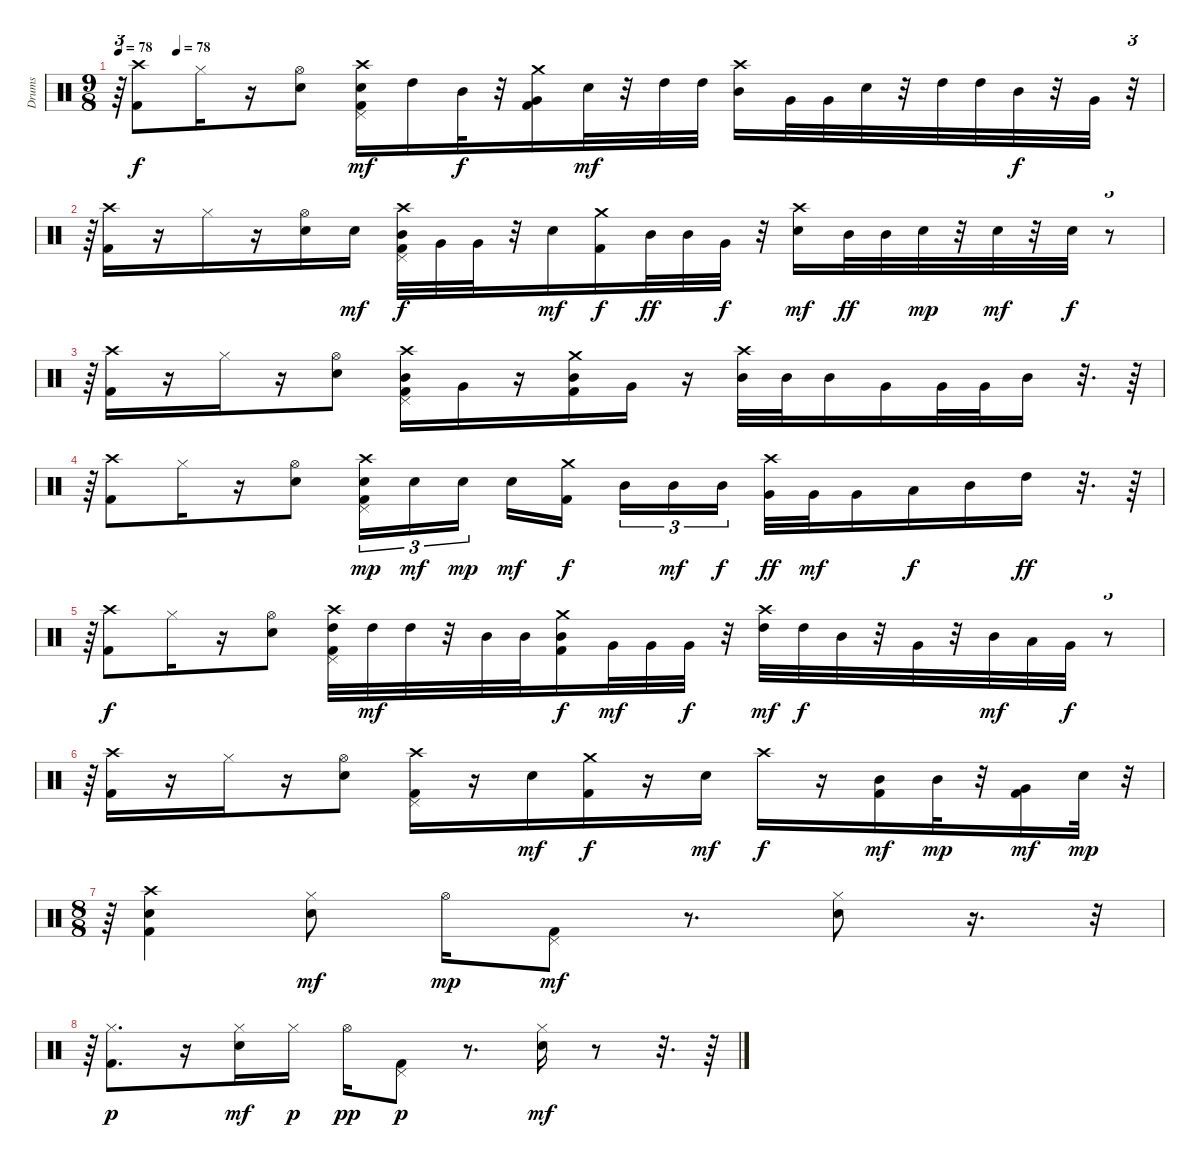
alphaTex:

\track ("Drums" "Drums") {instrument percussion}
\staff {score}
\articulation defaults
\ts (9 8)
\tempo 78
\tempo (78 0.05555555555555555)
\clef neutral
\ks c
r.64{tu (3 2) dy ff} ("Crash high (hit)" "Kick (hit) 2").8{dy f} "Hi-Hat (closed)".16 r.16 ("Hi-Hat (open)" "Electric Snare (hit)").8 ("Crash high (hit)" "Kick (hit) 2" "Pedal Hi-Hat (hit)" "Electric Snare (hit)").16{dy mf} "High Tom (hit)".16 "Mid Tom (hit)".32{dy f} r.32 ("Crash medium (hit)" "Kick (hit) 2" "Very Low Tom (hit)").16 "Electric Snare (hit)".32{dy mf} r.32 "High Tom (hit)".32 "High Tom (hit)".32 ("Crash high (hit)" "Mid Tom (hit)").16 "Very Low Tom (hit)".32 "Very Low Tom (hit)".32 "Electric Snare (hit)".32 r.32 "High Tom (hit)".32 "High Tom (hit)".32 "Mid Tom (hit)".32{dy f} r.32 "Very Low Tom (hit)".32 r.32{tu (3 2)} |
r.64{tu (3 2)} ("Crash high (hit)" "Kick (hit) 2").16 r.16 "Hi-Hat (closed)".16 r.16 ("Hi-Hat (open)" "Electric Snare (hit)").16 "Electric Snare (hit)".16{dy mf} ("Crash high (hit)" "Kick (hit) 2" "Pedal Hi-Hat (hit)" "Mid Tom (hit)").32{dy f} "Very Low Tom (hit)".32 "Very Low Tom (hit)".32 r.32 "Electric Snare (hit)".16{dy mf} ("Crash medium (hit)" "Kick (hit) 2").16{dy f} "Mid Tom (hit)".32{dy ff} "Mid Tom (hit)".32 "Very Low Tom (hit)".32{dy f} r.32 ("Crash high (hit)" "Electric Snare (hit)").16{dy mf} "Mid Tom (hit)".32{dy ff} "Mid Tom (hit)".32 "Electric Snare (hit)".32{dy mp} r.32 "Electric Snare (hit)".32{dy mf} r.32 "Electric Snare (hit)".32{dy f} r.8{tu (3 2)} |
r.64{tu (3 2)} ("Crash high (hit)" "Kick (hit) 2").16 r.16 "Hi-Hat (closed)".16 r.16 ("Hi-Hat (open)" "Electric Snare (hit)").8 ("Crash high (hit)" "Kick (hit) 2" "Pedal Hi-Hat (hit)" "Mid Tom (hit)").16 "Very Low Tom (hit)".16 r.16 ("Crash medium (hit)" "Kick (hit) 2" "Mid Tom (hit)").16 "Very Low Tom (hit)".16 r.16 ("Crash high (hit)" "Mid Tom (hit)").32 "Mid Tom (hit)".32 "Mid Tom (hit)".16 "Very Low Tom (hit)".16 "Very Low Tom (hit)".32 "Very Low Tom (hit)".32 "Mid Tom (hit)".16 r.32{d} r.64 |
r.64{tu (3 2)} ("Crash high (hit)" "Kick (hit) 2").8 "Hi-Hat (closed)".16 r.16 ("Hi-Hat (open)" "Electric Snare (hit)").8 ("Crash high (hit)" "Kick (hit) 2" "Pedal Hi-Hat (hit)" "Electric Snare (hit)").16{tu (3 2) dy mp} "Electric Snare (hit)".16{tu (3 2) dy mf} "Electric Snare (hit)".16{tu (3 2) dy mp beam splitsecondary} "Electric Snare (hit)".16{dy mf} ("Crash medium (hit)" "Kick (hit) 2").16{dy f beam splitsecondary} "Mid Tom (hit)".16{tu (3 2)} "Mid Tom (hit)".16{tu (3 2) dy mf} "Mid Tom (hit)".16{tu (3 2) dy f} ("Crash high (hit)" "Very Low Tom (hit)").32{dy ff} "Very Low Tom (hit)".32{dy mf} "Very Low Tom (hit)".16 "Low Tom (hit)".16{dy f} "Mid Tom (hit)".16 "High Tom (hit)".16{dy ff} r.32{d} r.64 |
r.64{tu (3 2)} ("Crash high (hit)" "Kick (hit) 2").8{dy f} "Hi-Hat (closed)".16 r.16 ("Hi-Hat (open)" "Electric Snare (hit)").8 ("Crash high (hit)" "Kick (hit) 2" "Pedal Hi-Hat (hit)" "High Tom (hit)").32 "High Tom (hit)".32{dy mf} "High Tom (hit)".32 r.32 "Mid Tom (hit)".32 "Mid Tom (hit)".32 ("Crash medium (hit)" "Kick (hit) 2" "Mid Tom (hit)").16{dy f} "Very Low Tom (hit)".32{dy mf} "Very Low Tom (hit)".32 "Very Low Tom (hit)".32{dy f} r.32 ("Crash high (hit)" "High Tom (hit)").32{dy mf} "High Tom (hit)".32{dy f} "Mid Tom (hit)".32 r.32 "Very Low Tom (hit)".32 r.32 "Mid Tom (hit)".32{dy mf} "Low Tom (hit)".32 "Very Low Tom (hit)".32{dy f} r.8{tu (3 2)} |
r.64{tu (3 2)} ("Crash high (hit)" "Kick (hit) 2").16 r.16 "Hi-Hat (closed)".16 r.16 ("Hi-Hat (open)" "Electric Snare (hit)").8 ("Crash high (hit)" "Kick (hit) 2" "Pedal Hi-Hat (hit)").16 r.16 "Electric Snare (hit)".16{dy mf} ("Crash medium (hit)" "Kick (hit) 2").16{dy f} r.16 "Electric Snare (hit)".16{dy mf} "Crash high (hit)".16{dy f} r.16 ("Kick (hit) 2" "Mid Tom (hit)").16{dy mf} "Mid Tom (hit)".32{dy mp} r.32 ("Kick (hit) 2" "Very Low Tom (hit)").16{dy mf} "Electric Snare (hit)".32{dy mp} r.32{tu (3 2)} |
\ts (8 8)
r.64{tu (3 2)} ("Electric Snare (hit)" "Crash high (hit)" "Kick (hit) 2").4 ("Hi-Hat (closed)" "Electric Snare (hit)").8{dy mf} "Hi-Hat (open)".16{dy mp} ("Kick (hit) 2" "Pedal Hi-Hat (hit)").8{dy mf} r.8{d} ("Hi-Hat (closed)" "Electric Snare (hit)").8 r.16{d} r.32{tu (3 2)} |
r.64{tu (3 2)} ("Kick (hit) 2" "Hi-Hat (closed)").8{d dy p} r.16 ("Hi-Hat (closed)" "Electric Snare (hit)").16{dy mf} "Hi-Hat (closed)".16{dy p} "Hi-Hat (open)".16{dy pp} ("Kick (hit) 2" "Pedal Hi-Hat (hit)").8{dy p} r.8{d} ("Hi-Hat (closed)" "Electric Snare (hit)").16{dy mf} r.8 r.32{d} r.64
